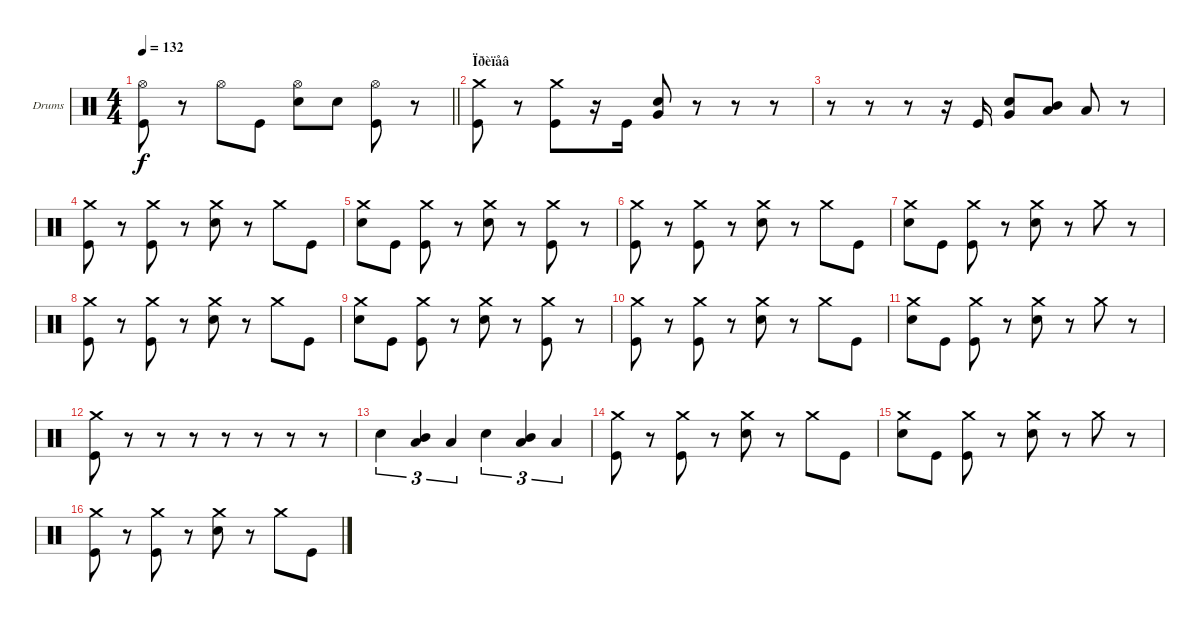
\bracketExtendMode groupsimilarinstruments
\firstSystemTrackNameOrientation horizontal
\otherSystemsTrackNameOrientation horizontal
\track ("Drumkit" "Drums") {instrument percussion}
\staff {score}
\articulation defaults
\ts (4 4)
\tempo 132
\clef neutral
\barLineRight lightlight
\ks c
("Kick (hit)" "Hi-Hat (open)").8{dy f} r.8 "Hi-Hat (open)".8 "Kick (hit)".8 ("Snare (hit) 2" "Hi-Hat (open)").8 "Snare (hit) 2".8 ("Kick (hit)" "Hi-Hat (open)").8 r.8 |
\section ("" "Ïðèïåâ")
("Kick (hit)" "Crash medium (hit)").8 r.8 ("Kick (hit)" "Crash medium (hit)").8 r.16 "Kick (hit)".16 ("Snare (hit) 2" "Very Low Tom (hit)").8 r.8 r.8 r.8 |
r.8 r.8 r.8 r.16 "Kick (hit)".16 ("Snare (hit) 2" "Very Low Tom (hit)").8 ("Low Tom (hit)" "Mid Tom (hit)").8 "Low Tom (hit)".8 r.8 |
("Kick (hit)" "Crash medium (hit)").8 r.8 ("Kick (hit)" "Crash medium (hit)").8 r.8 ("Snare (hit) 2" "Crash medium (hit)").8 r.8 "Crash medium (hit)".8 "Kick (hit)".8 |
("Snare (hit) 2" "Crash medium (hit)").8 "Kick (hit)".8 ("Kick (hit)" "Crash medium (hit)").8 r.8 ("Snare (hit) 2" "Crash medium (hit)").8 r.8 ("Kick (hit)" "Crash medium (hit)").8 r.8 |
("Kick (hit)" "Crash medium (hit)").8 r.8 ("Kick (hit)" "Crash medium (hit)").8 r.8 ("Snare (hit) 2" "Crash medium (hit)").8 r.8 "Crash medium (hit)".8 "Kick (hit)".8 |
("Snare (hit) 2" "Crash medium (hit)").8 "Kick (hit)".8 ("Kick (hit)" "Crash medium (hit)").8 r.8 ("Snare (hit) 2" "Crash medium (hit)").8 r.8 "Crash medium (hit)".8 r.8 |
("Kick (hit)" "Crash medium (hit)").8 r.8 ("Kick (hit)" "Crash medium (hit)").8 r.8 ("Snare (hit) 2" "Crash medium (hit)").8 r.8 "Crash medium (hit)".8 "Kick (hit)".8 |
("Snare (hit) 2" "Crash medium (hit)").8 "Kick (hit)".8 ("Kick (hit)" "Crash medium (hit)").8 r.8 ("Snare (hit) 2" "Crash medium (hit)").8 r.8 ("Kick (hit)" "Crash medium (hit)").8 r.8 |
("Kick (hit)" "Crash medium (hit)").8 r.8 ("Kick (hit)" "Crash medium (hit)").8 r.8 ("Snare (hit) 2" "Crash medium (hit)").8 r.8 "Crash medium (hit)".8 "Kick (hit)".8 |
("Snare (hit) 2" "Crash medium (hit)").8 "Kick (hit)".8 ("Kick (hit)" "Crash medium (hit)").8 r.8 ("Snare (hit) 2" "Crash medium (hit)").8 r.8 "Crash medium (hit)".8 r.8 |
("Kick (hit)" "Crash medium (hit)").8 r.8 r.8 r.8 r.8 r.8 r.8 r.8 |
"Snare (hit) 2".4{tu (3 2)} ("Low Tom (hit)" "Mid Tom (hit)").4{tu (3 2)} "Low Tom (hit)".4{tu (3 2)} "Snare (hit) 2".4{tu (3 2)} ("Low Tom (hit)" "Mid Tom (hit)").4{tu (3 2)} "Low Tom (hit)".4{tu (3 2)} |
("Kick (hit)" "Crash medium (hit)").8 r.8 ("Kick (hit)" "Crash medium (hit)").8 r.8 ("Snare (hit) 2" "Crash medium (hit)").8 r.8 "Crash medium (hit)".8 "Kick (hit)".8 |
("Snare (hit) 2" "Crash medium (hit)").8 "Kick (hit)".8 ("Kick (hit)" "Crash medium (hit)").8 r.8 ("Snare (hit) 2" "Crash medium (hit)").8 r.8 "Crash medium (hit)".8 r.8 |
("Kick (hit)" "Crash medium (hit)").8 r.8 ("Kick (hit)" "Crash medium (hit)").8 r.8 ("Snare (hit) 2" "Crash medium (hit)").8 r.8 "Crash medium (hit)".8 "Kick (hit)".8
